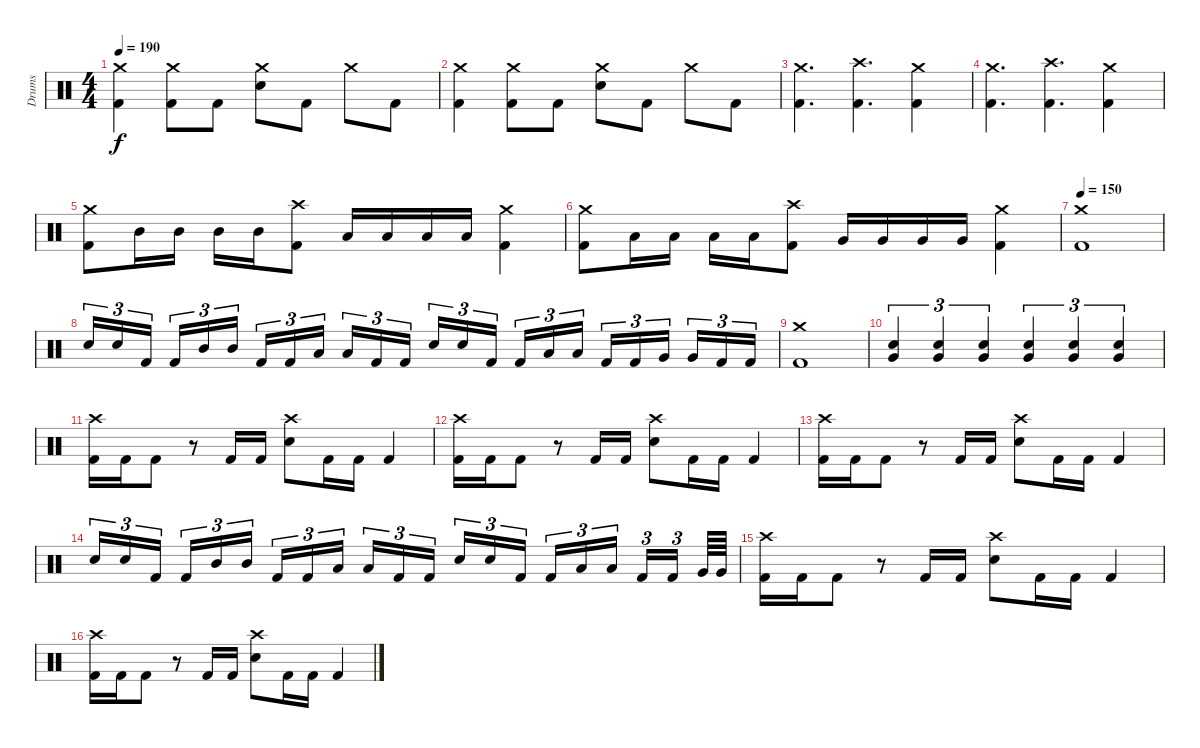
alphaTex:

\track ("Drums" "Drums") {instrument percussion}
\staff {score}
\articulation defaults
\ts (4 4)
\tempo 190
\clef neutral
\ks c
("Crash medium (hit)" "Kick (hit) 2").4{dy f} ("Crash medium (hit)" "Kick (hit) 2").8 "Kick (hit) 2".8 ("Crash medium (hit)" "Electric Snare (hit)").8 "Kick (hit) 2".8 "Crash medium (hit)".8 "Kick (hit) 2".8 |
("Crash medium (hit)" "Kick (hit) 2").4 ("Crash medium (hit)" "Kick (hit) 2").8 "Kick (hit) 2".8 ("Crash medium (hit)" "Electric Snare (hit)").8 "Kick (hit) 2".8 "Crash medium (hit)".8 "Kick (hit) 2".8 |
("Crash medium (hit)" "Kick (hit) 2").4{d} ("Crash high (hit)" "Kick (hit) 2").4{d} ("Crash medium (hit)" "Kick (hit) 2").4 |
("Crash medium (hit)" "Kick (hit) 2").4{d} ("Crash high (hit)" "Kick (hit) 2").4{d} ("Crash medium (hit)" "Kick (hit) 2").4 |
("Crash medium (hit)" "Kick (hit) 2").8 "Mid Tom (hit)".16 "Mid Tom (hit)".16 "Mid Tom (hit)".16 "Mid Tom (hit)".16 ("Crash high (hit)" "Kick (hit) 2").8 "Low Tom (hit)".16 "Low Tom (hit)".16 "Low Tom (hit)".16 "Low Tom (hit)".16 ("Crash medium (hit)" "Kick (hit) 2").4 |
("Crash medium (hit)" "Kick (hit) 2").8 "Low Tom (hit)".16 "Low Tom (hit)".16 "Low Tom (hit)".16 "Low Tom (hit)".16 ("Crash high (hit)" "Kick (hit) 2").8 "Very Low Tom (hit)".16 "Very Low Tom (hit)".16 "Very Low Tom (hit)".16 "Very Low Tom (hit)".16 ("Crash medium (hit)" "Kick (hit) 2").4 |
\tempo 150
("Crash medium (hit)" "Kick (hit) 2").1 |
"Electric Snare (hit)".16{tu (3 2)} "Electric Snare (hit)".16{tu (3 2)} "Kick (hit) 2".16{tu (3 2) beam splitsecondary} "Kick (hit) 2".16{tu (3 2)} "Mid Tom (hit)".16{tu (3 2)} "Mid Tom (hit)".16{tu (3 2)} "Kick (hit) 2".16{tu (3 2)} "Kick (hit) 2".16{tu (3 2)} "Low Tom (hit)".16{tu (3 2) beam splitsecondary} "Low Tom (hit)".16{tu (3 2)} "Kick (hit) 2".16{tu (3 2)} "Kick (hit) 2".16{tu (3 2)} "Electric Snare (hit)".16{tu (3 2)} "Electric Snare (hit)".16{tu (3 2)} "Kick (hit) 2".16{tu (3 2) beam splitsecondary} "Kick (hit) 2".16{tu (3 2)} "Low Tom (hit)".16{tu (3 2)} "Low Tom (hit)".16{tu (3 2)} "Kick (hit) 2".16{tu (3 2)} "Kick (hit) 2".16{tu (3 2)} "Very Low Tom (hit)".16{tu (3 2) beam splitsecondary} "Very Low Tom (hit)".16{tu (3 2)} "Kick (hit) 2".16{tu (3 2)} "Kick (hit) 2".16{tu (3 2)} |
("Crash medium (hit)" "Kick (hit) 2").1 |
("Electric Snare (hit)" "Very Low Tom (hit)").4{tu (3 2)} ("Electric Snare (hit)" "Very Low Tom (hit)").4{tu (3 2)} ("Electric Snare (hit)" "Very Low Tom (hit)").4{tu (3 2)} ("Electric Snare (hit)" "Very Low Tom (hit)").4{tu (3 2)} ("Electric Snare (hit)" "Very Low Tom (hit)").4{tu (3 2)} ("Electric Snare (hit)" "Very Low Tom (hit)").4{tu (3 2)} |
("Crash high (hit)" "Kick (hit) 2").16 "Kick (hit) 2".16 "Kick (hit) 2".8 r.8 "Kick (hit) 2".16 "Kick (hit) 2".16 ("Crash high (hit)" "Electric Snare (hit)").8 "Kick (hit) 2".16 "Kick (hit) 2".16 "Kick (hit) 2".4 |
("Crash high (hit)" "Kick (hit) 2").16 "Kick (hit) 2".16 "Kick (hit) 2".8 r.8 "Kick (hit) 2".16 "Kick (hit) 2".16 ("Crash high (hit)" "Electric Snare (hit)").8 "Kick (hit) 2".16 "Kick (hit) 2".16 "Kick (hit) 2".4 |
("Crash high (hit)" "Kick (hit) 2").16 "Kick (hit) 2".16 "Kick (hit) 2".8 r.8 "Kick (hit) 2".16 "Kick (hit) 2".16 ("Crash high (hit)" "Electric Snare (hit)").8 "Kick (hit) 2".16 "Kick (hit) 2".16 "Kick (hit) 2".4 |
"Electric Snare (hit)".16{tu (3 2)} "Electric Snare (hit)".16{tu (3 2)} "Kick (hit) 2".16{tu (3 2) beam splitsecondary} "Kick (hit) 2".16{tu (3 2)} "Mid Tom (hit)".16{tu (3 2)} "Mid Tom (hit)".16{tu (3 2)} "Kick (hit) 2".16{tu (3 2)} "Kick (hit) 2".16{tu (3 2)} "Low Tom (hit)".16{tu (3 2) beam splitsecondary} "Low Tom (hit)".16{tu (3 2)} "Kick (hit) 2".16{tu (3 2)} "Kick (hit) 2".16{tu (3 2)} "Electric Snare (hit)".16{tu (3 2)} "Electric Snare (hit)".16{tu (3 2)} "Kick (hit) 2".16{tu (3 2) beam splitsecondary} "Kick (hit) 2".16{tu (3 2)} "Low Tom (hit)".16{tu (3 2)} "Low Tom (hit)".16{tu (3 2)} "Kick (hit) 2".16{tu (3 2)} "Kick (hit) 2".16{tu (3 2) beam splitsecondary} "Very Low Tom (hit)".64 "Very Low Tom (hit)".64 |
("Crash high (hit)" "Kick (hit) 2").16 "Kick (hit) 2".16 "Kick (hit) 2".8 r.8 "Kick (hit) 2".16 "Kick (hit) 2".16 ("Crash high (hit)" "Electric Snare (hit)").8 "Kick (hit) 2".16 "Kick (hit) 2".16 "Kick (hit) 2".4 |
("Crash high (hit)" "Kick (hit) 2").16 "Kick (hit) 2".16 "Kick (hit) 2".8 r.8 "Kick (hit) 2".16 "Kick (hit) 2".16 ("Crash high (hit)" "Electric Snare (hit)").8 "Kick (hit) 2".16 "Kick (hit) 2".16 "Kick (hit) 2".4
